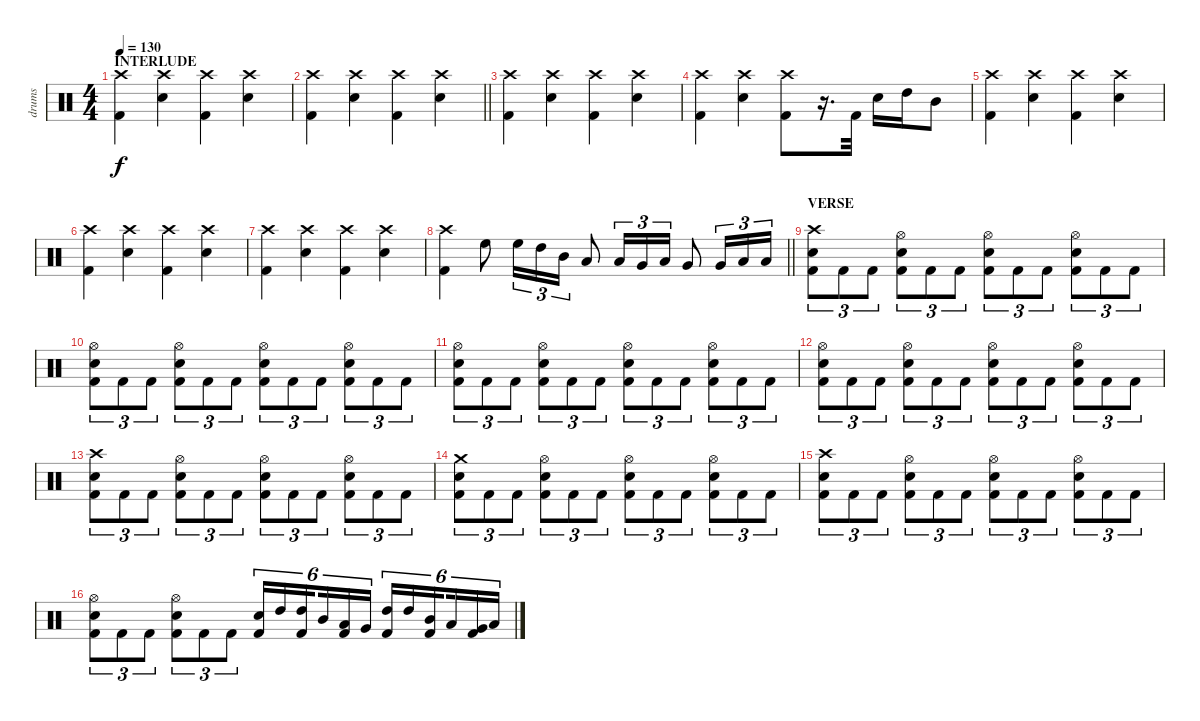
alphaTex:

\track ("drums" "drums") {instrument percussion}
\staff {score}
\articulation defaults
\ts (4 4)
\section ("" "INTERLUDE")
\tempo 130
\clef neutral
\ks c
("Crash high (hit)" "Kick (hit) 2").4{dy f} ("Crash high (hit)" "Electric Snare (hit)").4 ("Crash high (hit)" "Kick (hit) 2").4 ("Crash high (hit)" "Electric Snare (hit)").4 |
\barLineRight lightlight
("Crash high (hit)" "Kick (hit) 2").4 ("Crash high (hit)" "Electric Snare (hit)").4 ("Crash high (hit)" "Kick (hit) 2").4 ("Crash high (hit)" "Electric Snare (hit)").4 |
("Crash high (hit)" "Kick (hit) 2").4 ("Crash high (hit)" "Electric Snare (hit)").4 ("Crash high (hit)" "Kick (hit) 2").4 ("Crash high (hit)" "Electric Snare (hit)").4 |
("Crash high (hit)" "Kick (hit) 2").4 ("Crash high (hit)" "Electric Snare (hit)").4 ("Crash high (hit)" "Kick (hit) 2").8 r.16{d} "Kick (hit) 2".32 "Electric Snare (hit)".16 "High Tom (hit)".16 "Mid Tom (hit)".8 |
("Crash high (hit)" "Kick (hit) 2").4 ("Crash high (hit)" "Electric Snare (hit)").4 ("Crash high (hit)" "Kick (hit) 2").4 ("Crash high (hit)" "Electric Snare (hit)").4 |
("Crash high (hit)" "Kick (hit) 2").4 ("Crash high (hit)" "Electric Snare (hit)").4 ("Crash high (hit)" "Kick (hit) 2").4 ("Crash high (hit)" "Electric Snare (hit)").4 |
("Crash high (hit)" "Kick (hit) 2").4 ("Crash high (hit)" "Electric Snare (hit)").4 ("Crash high (hit)" "Kick (hit) 2").4 ("Crash high (hit)" "Electric Snare (hit)").4 |
\barLineRight lightlight
("Crash high (hit)" "Kick (hit) 2").4 "High Floor Tom (hit)".8 "High Floor Tom (hit)".16{tu (3 2)} "High Tom (hit)".16{tu (3 2)} "Mid Tom (hit)".16{tu (3 2)} "Low Tom (hit)".8 "Low Tom (hit)".16{tu (3 2)} "Very Low Tom (hit)".16{tu (3 2)} "Low Floor Tom (hit)".16{tu (3 2)} "Very Low Tom (hit)".8 "Very Low Tom (hit)".16{tu (3 2)} "Low Floor Tom (hit)".16{tu (3 2)} "Low Floor Tom (hit)".16{tu (3 2)} |
\section ("" "VERSE")
("Crash high (hit)" "Electric Snare (hit)" "Kick (hit) 2").8{tu (3 2)} "Kick (hit) 2".8{tu (3 2)} "Kick (hit) 2".8{tu (3 2)} ("Hi-Hat (open)" "Electric Snare (hit)" "Kick (hit) 2").8{tu (3 2)} "Kick (hit) 2".8{tu (3 2)} "Kick (hit) 2".8{tu (3 2)} ("Hi-Hat (open)" "Electric Snare (hit)" "Kick (hit) 2").8{tu (3 2)} "Kick (hit) 2".8{tu (3 2)} "Kick (hit) 2".8{tu (3 2)} ("Hi-Hat (open)" "Electric Snare (hit)" "Kick (hit) 2").8{tu (3 2)} "Kick (hit) 2".8{tu (3 2)} "Kick (hit) 2".8{tu (3 2)} |
("Hi-Hat (open)" "Electric Snare (hit)" "Kick (hit) 2").8{tu (3 2)} "Kick (hit) 2".8{tu (3 2)} "Kick (hit) 2".8{tu (3 2)} ("Hi-Hat (open)" "Electric Snare (hit)" "Kick (hit) 2").8{tu (3 2)} "Kick (hit) 2".8{tu (3 2)} "Kick (hit) 2".8{tu (3 2)} ("Hi-Hat (open)" "Electric Snare (hit)" "Kick (hit) 2").8{tu (3 2)} "Kick (hit) 2".8{tu (3 2)} "Kick (hit) 2".8{tu (3 2)} ("Hi-Hat (open)" "Electric Snare (hit)" "Kick (hit) 2").8{tu (3 2)} "Kick (hit) 2".8{tu (3 2)} "Kick (hit) 2".8{tu (3 2)} |
("Hi-Hat (open)" "Electric Snare (hit)" "Kick (hit) 2").8{tu (3 2)} "Kick (hit) 2".8{tu (3 2)} "Kick (hit) 2".8{tu (3 2)} ("Hi-Hat (open)" "Electric Snare (hit)" "Kick (hit) 2").8{tu (3 2)} "Kick (hit) 2".8{tu (3 2)} "Kick (hit) 2".8{tu (3 2)} ("Hi-Hat (open)" "Electric Snare (hit)" "Kick (hit) 2").8{tu (3 2)} "Kick (hit) 2".8{tu (3 2)} "Kick (hit) 2".8{tu (3 2)} ("Hi-Hat (open)" "Electric Snare (hit)" "Kick (hit) 2").8{tu (3 2)} "Kick (hit) 2".8{tu (3 2)} "Kick (hit) 2".8{tu (3 2)} |
("Hi-Hat (open)" "Electric Snare (hit)" "Kick (hit) 2").8{tu (3 2)} "Kick (hit) 2".8{tu (3 2)} "Kick (hit) 2".8{tu (3 2)} ("Hi-Hat (open)" "Electric Snare (hit)" "Kick (hit) 2").8{tu (3 2)} "Kick (hit) 2".8{tu (3 2)} "Kick (hit) 2".8{tu (3 2)} ("Hi-Hat (open)" "Electric Snare (hit)" "Kick (hit) 2").8{tu (3 2)} "Kick (hit) 2".8{tu (3 2)} "Kick (hit) 2".8{tu (3 2)} ("Hi-Hat (open)" "Electric Snare (hit)" "Kick (hit) 2").8{tu (3 2)} "Kick (hit) 2".8{tu (3 2)} "Kick (hit) 2".8{tu (3 2)} |
("Crash high (hit)" "Electric Snare (hit)" "Kick (hit) 2").8{tu (3 2)} "Kick (hit) 2".8{tu (3 2)} "Kick (hit) 2".8{tu (3 2)} ("Hi-Hat (open)" "Electric Snare (hit)" "Kick (hit) 2").8{tu (3 2)} "Kick (hit) 2".8{tu (3 2)} "Kick (hit) 2".8{tu (3 2)} ("Hi-Hat (open)" "Electric Snare (hit)" "Kick (hit) 2").8{tu (3 2)} "Kick (hit) 2".8{tu (3 2)} "Kick (hit) 2".8{tu (3 2)} ("Hi-Hat (open)" "Electric Snare (hit)" "Kick (hit) 2").8{tu (3 2)} "Kick (hit) 2".8{tu (3 2)} "Kick (hit) 2".8{tu (3 2)} |
("Crash medium (hit)" "Electric Snare (hit)" "Kick (hit) 2").8{tu (3 2)} "Kick (hit) 2".8{tu (3 2)} "Kick (hit) 2".8{tu (3 2)} ("Hi-Hat (open)" "Electric Snare (hit)" "Kick (hit) 2").8{tu (3 2)} "Kick (hit) 2".8{tu (3 2)} "Kick (hit) 2".8{tu (3 2)} ("Hi-Hat (open)" "Electric Snare (hit)" "Kick (hit) 2").8{tu (3 2)} "Kick (hit) 2".8{tu (3 2)} "Kick (hit) 2".8{tu (3 2)} ("Hi-Hat (open)" "Electric Snare (hit)" "Kick (hit) 2").8{tu (3 2)} "Kick (hit) 2".8{tu (3 2)} "Kick (hit) 2".8{tu (3 2)} |
("Crash high (hit)" "Electric Snare (hit)" "Kick (hit) 2").8{tu (3 2)} "Kick (hit) 2".8{tu (3 2)} "Kick (hit) 2".8{tu (3 2)} ("Hi-Hat (open)" "Electric Snare (hit)" "Kick (hit) 2").8{tu (3 2)} "Kick (hit) 2".8{tu (3 2)} "Kick (hit) 2".8{tu (3 2)} ("Hi-Hat (open)" "Electric Snare (hit)" "Kick (hit) 2").8{tu (3 2)} "Kick (hit) 2".8{tu (3 2)} "Kick (hit) 2".8{tu (3 2)} ("Hi-Hat (open)" "Electric Snare (hit)" "Kick (hit) 2").8{tu (3 2)} "Kick (hit) 2".8{tu (3 2)} "Kick (hit) 2".8{tu (3 2)} |
("Hi-Hat (open)" "Electric Snare (hit)" "Kick (hit) 2").8{tu (3 2)} "Kick (hit) 2".8{tu (3 2)} "Kick (hit) 2".8{tu (3 2)} ("Hi-Hat (open)" "Electric Snare (hit)" "Kick (hit) 2").8{tu (3 2)} "Kick (hit) 2".8{tu (3 2)} "Kick (hit) 2".8{tu (3 2)} ("Electric Snare (hit)" "Kick (hit) 2").16{tu (6 4)} "High Tom (hit)".16{tu (6 4)} ("High Tom (hit)" "Kick (hit) 2").16{tu (6 4) beam splitsecondary} "Mid Tom (hit)".16{tu (6 4)} ("Low Tom (hit)" "Kick (hit) 2").16{tu (6 4)} "Very Low Tom (hit)".16{tu (6 4)} ("High Tom (hit)" "Kick (hit) 2").16{tu (6 4)} "High Tom (hit)".16{tu (6 4)} ("Mid Tom (hit)" "Kick (hit) 2").16{tu (6 4) beam splitsecondary} "Low Tom (hit)".16{tu (6 4)} ("Very Low Tom (hit)" "Kick (hit) 2").16{tu (6 4)} "Low Floor Tom (hit)".16{tu (6 4)}
